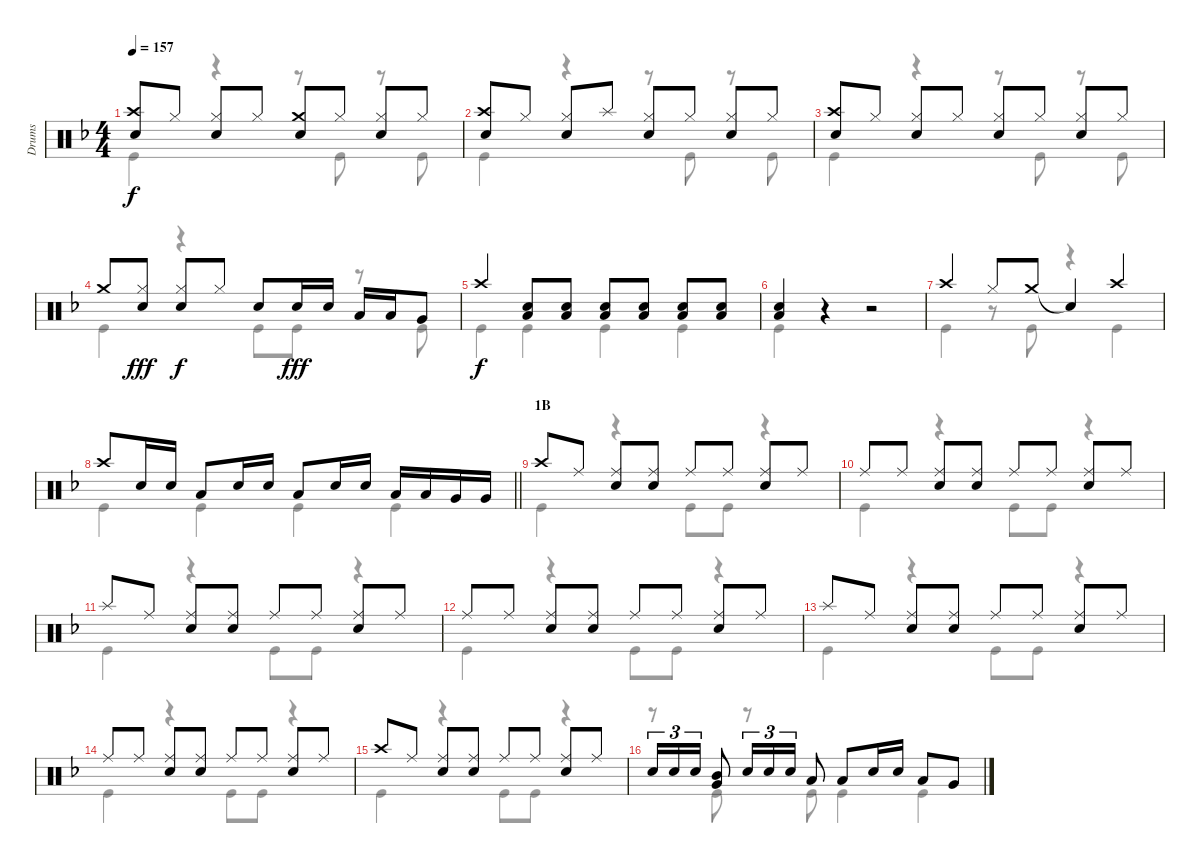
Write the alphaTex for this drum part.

\track ("Drums" "Drums") {instrument percussion}
\staff {score}
\articulation defaults
\voice
\ts (4 4)
\tempo 157
\clef neutral
\ks f
("Crash high (hit)" "Snare (hit) 2").8{dy f} "Hi-Hat (closed)".8 ("Hi-Hat (closed)" "Snare (hit) 2").8 "Hi-Hat (closed)".8 ("Crash medium (hit)" "Snare (hit) 2").8 "Hi-Hat (closed)".8 ("Hi-Hat (closed)" "Snare (hit) 2").8 "Hi-Hat (closed)".8 |
("Crash high (hit)" "Snare (hit) 2").8 "Hi-Hat (closed)".8 ("Hi-Hat (closed)" "Snare (hit) 2").8 "Splash (hit)".8 ("Hi-Hat (closed)" "Snare (hit) 2").8 "Hi-Hat (closed)".8 ("Hi-Hat (closed)" "Snare (hit) 2").8 "Hi-Hat (closed)".8 |
("Crash high (hit)" "Snare (hit) 2").8 "Hi-Hat (closed)".8 ("Hi-Hat (closed)" "Snare (hit) 2").8 "Hi-Hat (closed)".8 ("Hi-Hat (closed)" "Snare (hit) 2").8 "Hi-Hat (closed)".8 ("Hi-Hat (closed)" "Snare (hit) 2").8 "Hi-Hat (closed)".8 |
"Crash medium (hit)".8 ("Hi-Hat (closed)" "Snare (hit) 2").8{dy fff} ("Hi-Hat (closed)" "Snare (hit) 2").8{dy f} "Hi-Hat (closed)".8 "Snare (hit) 2".8 "Snare (hit) 2".16{dy fff} "Snare (hit) 2".16 "Low Tom (hit)".16 "Low Tom (hit)".16 "Very Low Tom (hit)".8 |
"Crash high (hit)".4{dy f} ("Snare (hit) 2" "Low Tom (hit)").8 ("Snare (hit) 2" "Low Tom (hit)").8 ("Snare (hit) 2" "Low Tom (hit)").8 ("Snare (hit) 2" "Low Tom (hit)").8 ("Snare (hit) 2" "Low Tom (hit)").8 ("Snare (hit) 2" "Low Tom (hit)").8 |
("Low Tom (hit)" "Snare (hit) 2").4 r.4 r.2 |
"Crash high (hit)".4 "Hi-Hat (closed)".8 "Crash medium (hit)".8 "Snare (hit)"{t}.4 "Crash high (hit)".4 |
\barLineRight lightlight "Crash high (hit)".8 "Snare (hit) 2".16 "Snare (hit) 2".16 "Low Tom (hit)".8 "Snare (hit) 2".16 "Snare (hit) 2".16 "Low Tom (hit)".8 "Snare (hit) 2".16 "Snare (hit) 2".16 "Low Tom (hit)".16 "Low Tom (hit)".16 "Very Low Tom (hit)".16 "Very Low Tom (hit)".16
|
\section ("" "1B")
"Crash high (hit)".8 "Ride (middle)".8 ("Ride (middle)" "Snare (hit) 2").8 ("Ride (middle)" "Snare (hit) 2").8 "Ride (middle)".8 "Ride (middle)".8 ("Ride (middle)" "Snare (hit) 2").8 "Ride (middle)".8 |
"Ride (middle)".8 "Ride (middle)".8 ("Ride (middle)" "Snare (hit) 2").8 ("Ride (middle)" "Snare (hit) 2").8 "Ride (middle)".8 "Ride (middle)".8 ("Ride (middle)" "Snare (hit) 2").8 "Ride (middle)".8 |
"Splash (hit)".8 "Ride (middle)".8 ("Ride (middle)" "Snare (hit) 2").8 ("Ride (middle)" "Snare (hit) 2").8 "Ride (middle)".8 "Ride (middle)".8 ("Ride (middle)" "Snare (hit) 2").8 "Ride (middle)".8 |
"Ride (middle)".8 "Ride (middle)".8 ("Ride (middle)" "Snare (hit) 2").8 ("Ride (middle)" "Snare (hit) 2").8 "Ride (middle)".8 "Ride (middle)".8 ("Ride (middle)" "Snare (hit) 2").8 "Ride (middle)".8 |
"Splash (hit)".8 "Ride (middle)".8 ("Ride (middle)" "Snare (hit) 2").8 ("Ride (middle)" "Snare (hit) 2").8 "Ride (middle)".8 "Ride (middle)".8 ("Ride (middle)" "Snare (hit) 2").8 "Ride (middle)".8 |
"Ride (middle)".8 "Ride (middle)".8 ("Ride (middle)" "Snare (hit) 2").8 ("Ride (middle)" "Snare (hit) 2").8 "Ride (middle)".8 "Ride (middle)".8 ("Ride (middle)" "Snare (hit) 2").8 "Ride (middle)".8 |
"Crash high (hit)".8 "Ride (middle)".8 ("Ride (middle)" "Snare (hit) 2").8 ("Ride (middle)" "Snare (hit) 2").8 "Ride (middle)".8 "Ride (middle)".8 ("Ride (middle)" "Snare (hit) 2").8 "Ride (middle)".8 |
"Snare (hit) 2".16{tu (3 2)} "Snare (hit) 2".16{tu (3 2)} "Snare (hit) 2".16{tu (3 2)} ("Very Low Tom (hit)" "Mid Tom (hit)").8 "Snare (hit) 2".16{tu (3 2)} "Snare (hit) 2".16{tu (3 2)} "Snare (hit) 2".16{tu (3 2)} "Low Tom (hit)".8 "Low Tom (hit)".8 "Snare (hit) 2".16 "Snare (hit) 2".16 "Low Tom (hit)".8 "Very Low Tom (hit)".8
\voice
\clef neutral
\ottava regular
\simile none
\ks f "Kick (hit)".4{dy f}
r.4 r.8 "Kick (hit)".8 r.8 "Kick (hit)".8 |
"Kick (hit)".4 r.4 r.8 "Kick (hit)".8 r.8 "Kick (hit)".8 |
"Kick (hit)".4 r.4 r.8 "Kick (hit)".8 r.8 "Kick (hit)".8 |
"Kick (hit)".4 r.4 "Kick (hit)".8 "Kick (hit)".8 r.8 "Kick (hit)".8 |
"Kick (hit)".4 "Kick (hit)".4 "Kick (hit)".4 "Kick (hit)".4 |
"Kick (hit)".4 r.4 r.2 |
"Kick (hit)".4 r.8 "Kick (hit)".8 r.4 "Kick (hit)".4 |
\barLineRight lightlight "Kick (hit)".4 "Kick (hit)".4 "Kick (hit)".4 "Kick (hit)".4
|
"Kick (hit)".4 r.4 "Kick (hit)".8 "Kick (hit)".8 r.4 |
"Kick (hit)".4 r.4 "Kick (hit)".8 "Kick (hit)".8 r.4 |
"Kick (hit)".4 r.4 "Kick (hit)".8 "Kick (hit)".8 r.4 |
"Kick (hit)".4 r.4 "Kick (hit)".8 "Kick (hit)".8 r.4 |
"Kick (hit)".4 r.4 "Kick (hit)".8 "Kick (hit)".8 r.4 |
"Kick (hit)".4 r.4 "Kick (hit)".8 "Kick (hit)".8 r.4 |
"Kick (hit)".4 r.4 "Kick (hit)".8 "Kick (hit)".8 r.4 |
r.8 "Kick (hit)".8 r.8 "Kick (hit)".8 "Kick (hit)".4 "Kick (hit)".4
